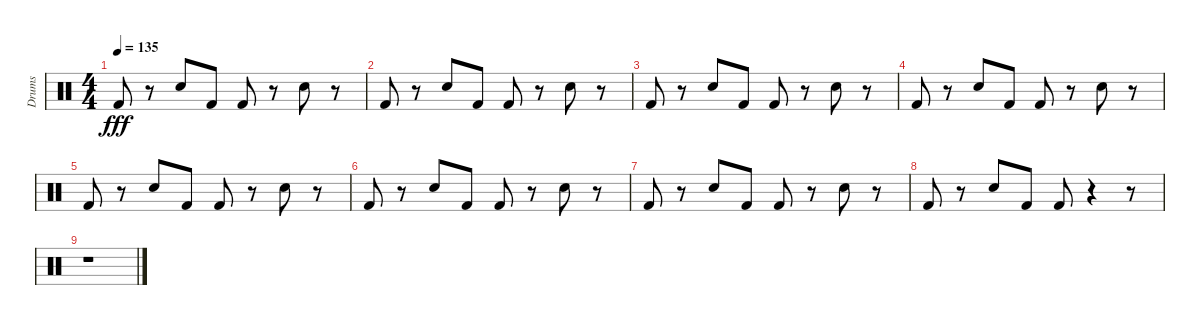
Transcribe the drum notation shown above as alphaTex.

\track ("Drums" "Drums") {instrument percussion}
\staff {score}
\articulation defaults
\ts (4 4)
\tempo 135
\clef neutral
\ks c "Kick (hit) 2".8{dy fff}
r.8 "Snare (hit) 2".8 "Kick (hit) 2".8 "Kick (hit) 2".8 r.8 "Snare (hit) 2".8 r.8 |
"Kick (hit) 2".8 r.8 "Snare (hit) 2".8 "Kick (hit) 2".8 "Kick (hit) 2".8 r.8 "Snare (hit) 2".8 r.8 |
"Kick (hit) 2".8 r.8 "Snare (hit) 2".8 "Kick (hit) 2".8 "Kick (hit) 2".8 r.8 "Snare (hit) 2".8 r.8 |
"Kick (hit) 2".8 r.8 "Snare (hit) 2".8 "Kick (hit) 2".8 "Kick (hit) 2".8 r.8 "Snare (hit) 2".8 r.8 |
"Kick (hit) 2".8 r.8 "Snare (hit) 2".8 "Kick (hit) 2".8 "Kick (hit) 2".8 r.8 "Snare (hit) 2".8 r.8 |
"Kick (hit) 2".8 r.8 "Snare (hit) 2".8 "Kick (hit) 2".8 "Kick (hit) 2".8 r.8 "Snare (hit) 2".8 r.8 |
"Kick (hit) 2".8 r.8 "Snare (hit) 2".8 "Kick (hit) 2".8 "Kick (hit) 2".8 r.8 "Snare (hit) 2".8 r.8 |
"Kick (hit) 2".8 r.8 "Snare (hit) 2".8 "Kick (hit) 2".8 "Kick (hit) 2".8 r.4 r.8 |
r.1
